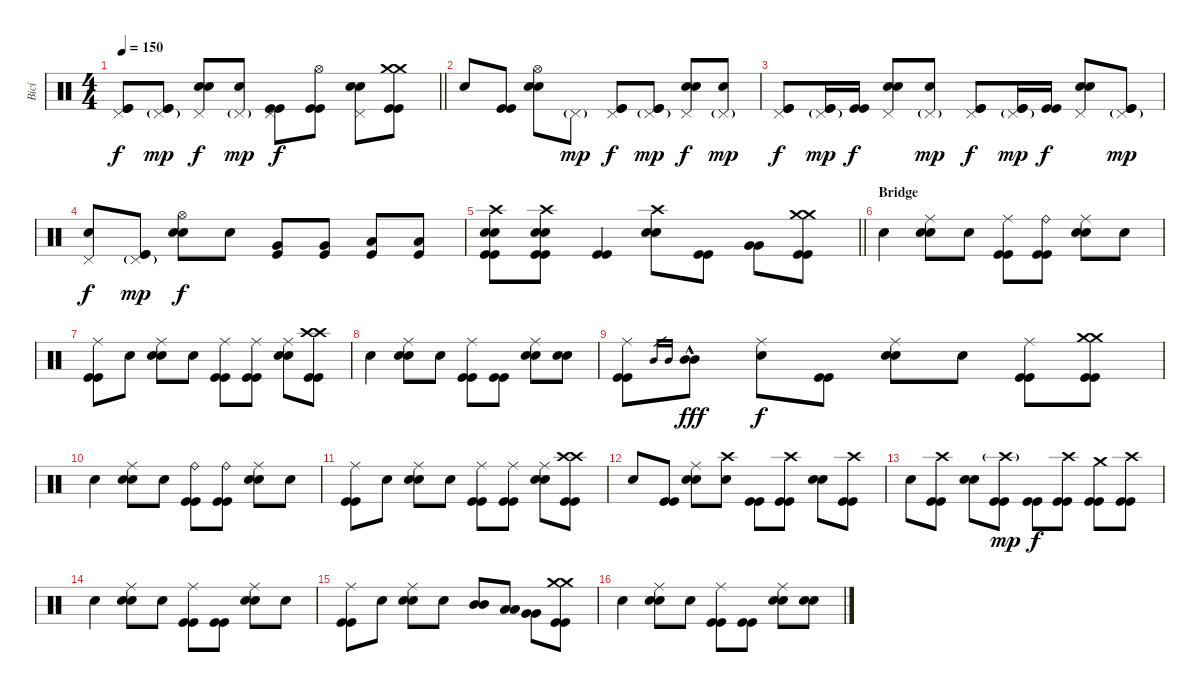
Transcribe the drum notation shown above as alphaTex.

\track ("Bicí" "Bicí") {instrument percussion}
\staff {score}
\articulation defaults
\ts (4 4)
\tempo 150
\clef neutral
\barLineRight lightlight
\ks c
("Pedal Hi-Hat (hit)" "Kick (hit)" "Kick (hit)").8{dy f} ("Pedal Hi-Hat (hit)"{g} "Kick (hit)" "Kick (hit)").8{dy mp} ("Pedal Hi-Hat (hit)" "Electric Snare (hit)" "Electric Snare (hit)").8{dy f} ("Pedal Hi-Hat (hit)"{g} "Snare (hit)").8{dy mp} ("Pedal Hi-Hat (hit)" "Kick (hit)" "Kick (hit)").8{dy f} ("Hi-Hat (open)" "Kick (hit)" "Kick (hit)").8 ("Pedal Hi-Hat (hit)" "Electric Snare (hit)" "Electric Snare (hit)").8 ("Crash medium (hit)" "Crash medium (hit)" "Kick (hit)" "Kick (hit)").8 |
"Snare (hit)".8 ("Kick (hit)" "Kick (hit)").8 ("Hi-Hat (open)" "Electric Snare (hit)" "Electric Snare (hit)").8 "Pedal Hi-Hat (hit)"{g}.8{dy mp} ("Pedal Hi-Hat (hit)" "Kick (hit)" "Kick (hit)").8{dy f} ("Pedal Hi-Hat (hit)"{g} "Kick (hit)" "Kick (hit)").8{dy mp} ("Pedal Hi-Hat (hit)" "Electric Snare (hit)" "Electric Snare (hit)").8{dy f} ("Pedal Hi-Hat (hit)"{g} "Snare (hit)").8{dy mp} |
("Pedal Hi-Hat (hit)" "Kick (hit)" "Kick (hit)").8{dy f} ("Pedal Hi-Hat (hit)"{g} "Kick (hit)" "Kick (hit)").16{dy mp} ("Kick (hit)" "Kick (hit)").16{dy f} ("Pedal Hi-Hat (hit)" "Electric Snare (hit)" "Electric Snare (hit)").8 ("Pedal Hi-Hat (hit)"{g} "Snare (hit)").8{dy mp} ("Pedal Hi-Hat (hit)" "Kick (hit)" "Kick (hit)").8{dy f} ("Pedal Hi-Hat (hit)"{g} "Kick (hit)" "Kick (hit)").16{dy mp} ("Kick (hit)" "Kick (hit)").16{dy f} ("Pedal Hi-Hat (hit)" "Electric Snare (hit)" "Electric Snare (hit)").8 ("Pedal Hi-Hat (hit)"{g} "Kick (hit)" "Kick (hit)").8{dy mp} |
("Pedal Hi-Hat (hit)" "Snare (hit)").8{dy f} ("Pedal Hi-Hat (hit)"{g} "Kick (hit)" "Kick (hit)").8{dy mp} ("Hi-Hat (open)" "Electric Snare (hit)" "Electric Snare (hit)").8{dy f} "Snare (hit)".8 ("Very Low Tom (hit)" "Kick (hit)").8 ("Very Low Tom (hit)" "Kick (hit)").8 ("Low Floor Tom (hit)" "Kick (hit)").8 ("Low Floor Tom (hit)" "Kick (hit)").8 |
\barLineRight lightlight
("Crash high (hit)" "Electric Snare (hit)" "Electric Snare (hit)" "Kick (hit)" "Kick (hit)").8 ("Crash high (hit)" "Electric Snare (hit)" "Electric Snare (hit)" "Kick (hit)" "Kick (hit)").8 ("Kick (hit)" "Kick (hit)").4 ("Crash high (hit)" "Electric Snare (hit)" "Electric Snare (hit)").8 ("Kick (hit)" "Kick (hit)").8 ("Very Low Tom (hit)" "Very Low Tom (hit)").8 ("Crash medium (hit)" "Crash medium (hit)" "Kick (hit)" "Kick (hit)").8 |
\section ("" "Bridge")
"Snare (hit)".4 ("Ride (middle)" "Electric Snare (hit)" "Electric Snare (hit)").8 "Snare (hit)".8 ("Ride (middle)" "Kick (hit)" "Kick (hit)").8 ("Ride (bell)" "Kick (hit)" "Kick (hit)").8 ("Ride (middle)" "Electric Snare (hit)" "Electric Snare (hit)").8 "Snare (hit)".8 |
("Ride (middle)" "Kick (hit)" "Kick (hit)").8 "Snare (hit)".8 ("Ride (middle)" "Electric Snare (hit)" "Electric Snare (hit)").8 "Snare (hit)".8 ("Ride (middle)" "Kick (hit)" "Kick (hit)").8 ("Ride (middle)" "Kick (hit)" "Kick (hit)").8 ("Ride (middle)" "Electric Snare (hit)" "Electric Snare (hit)").8 ("Crash high (hit)" "Crash high (hit)" "Kick (hit)" "Kick (hit)").8 |
"Snare (hit)".4 ("Ride (middle)" "Electric Snare (hit)" "Electric Snare (hit)").8 "Snare (hit)".8 ("Ride (middle)" "Kick (hit)" "Kick (hit)").8 ("Kick (hit)" "Kick (hit)").8 ("Ride (middle)" "Electric Snare (hit)" "Electric Snare (hit)").8 ("Snare (hit)" "Snare (hit)").8 |
("Ride (middle)" "Kick (hit)" "Kick (hit)").8 "Mid Tom (hit)".16{gr} "Mid Tom (hit)".16{gr} ("Mid Tom (hit)"{hac} "Mid Tom (hit)").8{dy fff} ("Ride (middle)" "Snare (hit)").8{dy f} ("Kick (hit)" "Kick (hit)").8 ("Ride (middle)" "Electric Snare (hit)" "Electric Snare (hit)").8 "Snare (hit)".8 ("Ride (middle)" "Kick (hit)" "Kick (hit)").8 ("Crash medium (hit)" "Crash medium (hit)" "Kick (hit)" "Kick (hit)").8 |
"Snare (hit)".4 ("Ride (middle)" "Electric Snare (hit)" "Electric Snare (hit)").8 "Snare (hit)".8 ("Ride (bell)" "Kick (hit)" "Kick (hit)").8 ("Ride (bell)" "Kick (hit)" "Kick (hit)").8 ("Ride (middle)" "Electric Snare (hit)" "Electric Snare (hit)").8 "Snare (hit)".8 |
("Ride (middle)" "Kick (hit)" "Kick (hit)").8 "Snare (hit)".8 ("Ride (middle)" "Electric Snare (hit)" "Electric Snare (hit)").8 "Snare (hit)".8 ("Ride (middle)" "Kick (hit)" "Kick (hit)").8 ("Ride (middle)" "Kick (hit)" "Kick (hit)").8 ("Ride (middle)" "Electric Snare (hit)" "Electric Snare (hit)").8 ("Crash high (hit)" "Crash high (hit)" "Kick (hit)" "Kick (hit)").8 |
"Snare (hit)".8 ("Kick (hit)" "Kick (hit)").8 ("Ride (middle)" "Electric Snare (hit)" "Electric Snare (hit)").8 ("Crash high (hit)" "Snare (hit)").8 ("Kick (hit)" "Kick (hit)").8 ("Crash high (hit)" "Kick (hit)" "Kick (hit)").8 ("Electric Snare (hit)" "Electric Snare (hit)").8 ("Crash high (hit)" "Kick (hit)" "Kick (hit)").8 |
"Snare (hit)".8 ("Crash high (hit)" "Kick (hit)" "Kick (hit)").8 ("Electric Snare (hit)" "Electric Snare (hit)").8 ("Crash high (hit)"{g} "Kick (hit)" "Kick (hit)").8{dy mp} ("Kick (hit)" "Kick (hit)").8{dy f} ("Crash high (hit)" "Kick (hit)" "Kick (hit)").8 ("Crash medium (hit)" "Kick (hit)" "Kick (hit)").8 ("Crash high (hit)" "Kick (hit)" "Kick (hit)").8 |
"Snare (hit)".4 ("Ride (middle)" "Electric Snare (hit)" "Electric Snare (hit)").8 "Snare (hit)".8 ("Ride (middle)" "Kick (hit)" "Kick (hit)").8 ("Kick (hit)" "Kick (hit)").8 ("Ride (middle)" "Electric Snare (hit)" "Electric Snare (hit)").8 "Snare (hit)".8 |
("Ride (middle)" "Kick (hit)" "Kick (hit)").8 "Snare (hit)".8 ("Ride (middle)" "Electric Snare (hit)" "Electric Snare (hit)").8 "Snare (hit)".8 ("Mid Tom (hit)" "Mid Tom (hit)").8 ("Low Tom (hit)" "Low Tom (hit)").8 ("Very Low Tom (hit)" "Very Low Tom (hit)").8 ("Crash medium (hit)" "Crash medium (hit)" "Kick (hit)" "Kick (hit)").8 |
"Snare (hit)".4 ("Ride (middle)" "Electric Snare (hit)" "Electric Snare (hit)").8 "Snare (hit)".8 ("Ride (middle)" "Kick (hit)" "Kick (hit)").8 ("Kick (hit)" "Kick (hit)").8 ("Ride (middle)" "Electric Snare (hit)" "Electric Snare (hit)").8 ("Snare (hit)" "Snare (hit)").8
